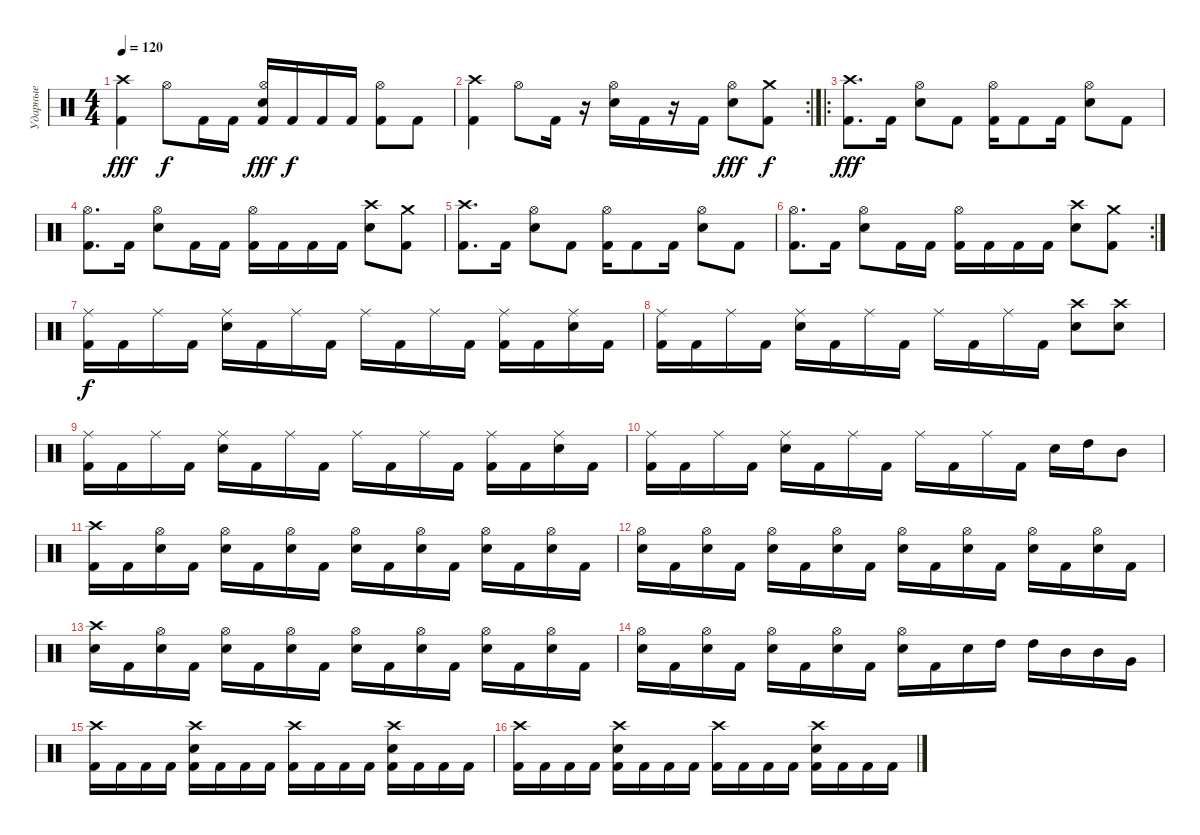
\track ("Ударные" "Ударные") {instrument percussion}
\staff {score}
\articulation defaults
\ts (4 4)
\tempo 120
\clef neutral
\ks c
("Crash high (hit)" "Kick (hit) 2").4{dy fff} "Hi-Hat (open)".8{dy f} "Kick (hit) 2".16 "Kick (hit) 2".16 ("Hi-Hat (open)" "Electric Snare (hit)" "Kick (hit) 2").16{dy fff} "Kick (hit) 2".16{dy f} "Kick (hit) 2".16 "Kick (hit) 2".16 ("Hi-Hat (open)" "Kick (hit) 2").8 "Kick (hit) 2".8 |
\rc 2
("Crash high (hit)" "Kick (hit) 2").4 "Hi-Hat (open)".8 "Kick (hit) 2".16 r.16 ("Hi-Hat (open)" "Electric Snare (hit)").16 "Kick (hit) 2".16 r.16 "Kick (hit) 2".16 ("Hi-Hat (open)" "Electric Snare (hit)").8{dy fff} ("Crash medium (hit)" "Kick (hit) 2").8{dy f} |
\ro
("Crash high (hit)" "Kick (hit) 2").8{d dy fff} "Kick (hit) 2".16 ("Hi-Hat (open)" "Electric Snare (hit)").8 "Kick (hit) 2".8 ("Hi-Hat (open)" "Kick (hit) 2").16 "Kick (hit) 2".8 "Kick (hit) 2".16 ("Hi-Hat (open)" "Electric Snare (hit)").8 "Kick (hit) 2".8 |
("Hi-Hat (open)" "Kick (hit) 2").8{d} "Kick (hit) 2".16 ("Hi-Hat (open)" "Electric Snare (hit)").8 "Kick (hit) 2".16 "Kick (hit) 2".16 ("Hi-Hat (open)" "Kick (hit) 2").16 "Kick (hit) 2".16 "Kick (hit) 2".16 "Kick (hit) 2".16 ("Crash high (hit)" "Electric Snare (hit)").8 ("Crash medium (hit)" "Kick (hit) 2").8 |
("Crash high (hit)" "Kick (hit) 2").8{d} "Kick (hit) 2".16 ("Hi-Hat (open)" "Electric Snare (hit)").8 "Kick (hit) 2".8 ("Hi-Hat (open)" "Kick (hit) 2").16 "Kick (hit) 2".8 "Kick (hit) 2".16 ("Hi-Hat (open)" "Electric Snare (hit)").8 "Kick (hit) 2".8 |
\rc 2
("Hi-Hat (open)" "Kick (hit) 2").8{d} "Kick (hit) 2".16 ("Hi-Hat (open)" "Electric Snare (hit)").8 "Kick (hit) 2".16 "Kick (hit) 2".16 ("Hi-Hat (open)" "Kick (hit) 2").16 "Kick (hit) 2".16 "Kick (hit) 2".16 "Kick (hit) 2".16 ("Crash high (hit)" "Electric Snare (hit)").8 ("Crash medium (hit)" "Kick (hit) 2").8 |
("Ride (middle)" "Kick (hit) 2").16{dy f} "Kick (hit) 2".16 "Ride (middle)".16 "Kick (hit) 2".16 ("Ride (middle)" "Electric Snare (hit)").16 "Kick (hit) 2".16 "Ride (middle)".16 "Kick (hit) 2".16 "Ride (middle)".16 "Kick (hit) 2".16 "Ride (middle)".16 "Kick (hit) 2".16 ("Ride (middle)" "Kick (hit) 2").16 "Kick (hit) 2".16 ("Ride (middle)" "Electric Snare (hit)").16 "Kick (hit) 2".16 |
("Ride (middle)" "Kick (hit) 2").16 "Kick (hit) 2".16 "Ride (middle)".16 "Kick (hit) 2".16 ("Ride (middle)" "Electric Snare (hit)").16 "Kick (hit) 2".16 "Ride (middle)".16 "Kick (hit) 2".16 "Ride (middle)".16 "Kick (hit) 2".16 "Ride (middle)".16 "Kick (hit) 2".16 ("Crash high (hit)" "Electric Snare (hit)").8 ("Crash high (hit)" "Electric Snare (hit)").8 |
("Ride (middle)" "Kick (hit) 2").16 "Kick (hit) 2".16 "Ride (middle)".16 "Kick (hit) 2".16 ("Ride (middle)" "Electric Snare (hit)").16 "Kick (hit) 2".16 "Ride (middle)".16 "Kick (hit) 2".16 "Ride (middle)".16 "Kick (hit) 2".16 "Ride (middle)".16 "Kick (hit) 2".16 ("Ride (middle)" "Kick (hit) 2").16 "Kick (hit) 2".16 ("Ride (middle)" "Electric Snare (hit)").16 "Kick (hit) 2".16 |
("Ride (middle)" "Kick (hit) 2").16 "Kick (hit) 2".16 "Ride (middle)".16 "Kick (hit) 2".16 ("Ride (middle)" "Electric Snare (hit)").16 "Kick (hit) 2".16 "Ride (middle)".16 "Kick (hit) 2".16 "Ride (middle)".16 "Kick (hit) 2".16 "Ride (middle)".16 "Kick (hit) 2".16 "Electric Snare (hit)".16 "High Tom (hit)".16 "Mid Tom (hit)".8 |
("Crash high (hit)" "Kick (hit) 2").16 "Kick (hit) 2".16 ("Hi-Hat (open)" "Electric Snare (hit)").16 "Kick (hit) 2".16 ("Hi-Hat (open)" "Electric Snare (hit)").16 "Kick (hit) 2".16 ("Hi-Hat (open)" "Electric Snare (hit)").16 "Kick (hit) 2".16 ("Hi-Hat (open)" "Electric Snare (hit)").16 "Kick (hit) 2".16 ("Hi-Hat (open)" "Electric Snare (hit)").16 "Kick (hit) 2".16 ("Hi-Hat (open)" "Electric Snare (hit)").16 "Kick (hit) 2".16 ("Hi-Hat (open)" "Electric Snare (hit)").16 "Kick (hit) 2".16 |
("Hi-Hat (open)" "Electric Snare (hit)").16 "Kick (hit) 2".16 ("Hi-Hat (open)" "Electric Snare (hit)").16 "Kick (hit) 2".16 ("Hi-Hat (open)" "Electric Snare (hit)").16 "Kick (hit) 2".16 ("Hi-Hat (open)" "Electric Snare (hit)").16 "Kick (hit) 2".16 ("Hi-Hat (open)" "Electric Snare (hit)").16 "Kick (hit) 2".16 ("Hi-Hat (open)" "Electric Snare (hit)").16 "Kick (hit) 2".16 ("Hi-Hat (open)" "Electric Snare (hit)").16 "Kick (hit) 2".16 ("Hi-Hat (open)" "Electric Snare (hit)").16 "Kick (hit) 2".16 |
("Crash high (hit)" "Electric Snare (hit)").16 "Kick (hit) 2".16 ("Hi-Hat (open)" "Electric Snare (hit)").16 "Kick (hit) 2".16 ("Hi-Hat (open)" "Electric Snare (hit)").16 "Kick (hit) 2".16 ("Hi-Hat (open)" "Electric Snare (hit)").16 "Kick (hit) 2".16 ("Hi-Hat (open)" "Electric Snare (hit)").16 "Kick (hit) 2".16 ("Hi-Hat (open)" "Electric Snare (hit)").16 "Kick (hit) 2".16 ("Hi-Hat (open)" "Electric Snare (hit)").16 "Kick (hit) 2".16 ("Hi-Hat (open)" "Electric Snare (hit)").16 "Kick (hit) 2".16 |
("Hi-Hat (open)" "Electric Snare (hit)").16 "Kick (hit) 2".16 ("Hi-Hat (open)" "Electric Snare (hit)").16 "Kick (hit) 2".16 ("Hi-Hat (open)" "Electric Snare (hit)").16 "Kick (hit) 2".16 ("Hi-Hat (open)" "Electric Snare (hit)").16 "Kick (hit) 2".16 ("Hi-Hat (open)" "Electric Snare (hit)").16 "Kick (hit) 2".16 "Electric Snare (hit)".16 "High Tom (hit)".16 "High Tom (hit)".16 "Mid Tom (hit)".16 "Mid Tom (hit)".16 "Very Low Tom (hit)".16 |
("Crash high (hit)" "Kick (hit) 2").16 "Kick (hit) 2".16 "Kick (hit) 2".16 "Kick (hit) 2".16 ("Crash high (hit)" "Electric Snare (hit)" "Kick (hit) 2").16 "Kick (hit) 2".16 "Kick (hit) 2".16 "Kick (hit) 2".16 ("Crash high (hit)" "Kick (hit) 2").16 "Kick (hit) 2".16 "Kick (hit) 2".16 "Kick (hit) 2".16 ("Crash high (hit)" "Electric Snare (hit)" "Kick (hit) 2").16 "Kick (hit) 2".16 "Kick (hit) 2".16 "Kick (hit) 2".16 |
("Crash high (hit)" "Kick (hit) 2").16 "Kick (hit) 2".16 "Kick (hit) 2".16 "Kick (hit) 2".16 ("Crash high (hit)" "Electric Snare (hit)" "Kick (hit) 2").16 "Kick (hit) 2".16 "Kick (hit) 2".16 "Kick (hit) 2".16 ("Crash high (hit)" "Kick (hit) 2").16 "Kick (hit) 2".16 "Kick (hit) 2".16 "Kick (hit) 2".16 ("Crash high (hit)" "Electric Snare (hit)" "Kick (hit) 2").16 "Kick (hit) 2".16 "Kick (hit) 2".16 "Kick (hit) 2".16
